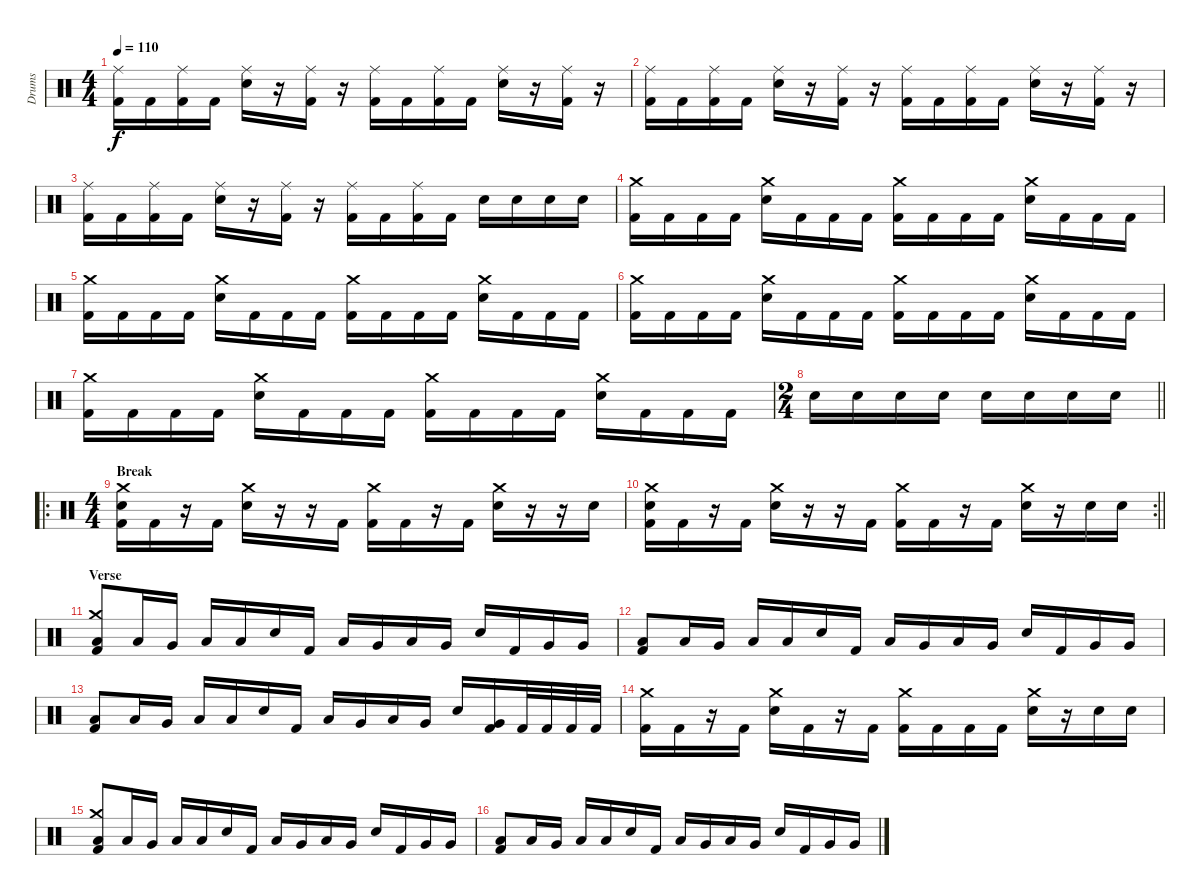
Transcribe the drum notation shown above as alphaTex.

\track ("Drums" "Drums") {instrument percussion}
\staff {score}
\articulation defaults
\ts (4 4)
\tempo 110
\clef neutral
\ks c
("Ride (middle)" "Kick (hit) 2").16{dy f} "Kick (hit) 2".16 ("Ride (middle)" "Kick (hit) 2").16 "Kick (hit) 2".16 ("Ride (middle)" "Electric Snare (hit)").16 r.16 ("Ride (middle)" "Kick (hit) 2").16 r.16 ("Ride (middle)" "Kick (hit) 2").16 "Kick (hit) 2".16 ("Ride (middle)" "Kick (hit) 2").16 "Kick (hit) 2".16 ("Ride (middle)" "Electric Snare (hit)").16 r.16 ("Ride (middle)" "Kick (hit) 2").16 r.16 |
("Ride (middle)" "Kick (hit) 2").16 "Kick (hit) 2".16 ("Ride (middle)" "Kick (hit) 2").16 "Kick (hit) 2".16 ("Ride (middle)" "Electric Snare (hit)").16 r.16 ("Ride (middle)" "Kick (hit) 2").16 r.16 ("Ride (middle)" "Kick (hit) 2").16 "Kick (hit) 2".16 ("Ride (middle)" "Kick (hit) 2").16 "Kick (hit) 2".16 ("Ride (middle)" "Electric Snare (hit)").16 r.16 ("Ride (middle)" "Kick (hit) 2").16 r.16 |
("Ride (middle)" "Kick (hit) 2").16 "Kick (hit) 2".16 ("Ride (middle)" "Kick (hit) 2").16 "Kick (hit) 2".16 ("Ride (middle)" "Electric Snare (hit)").16 r.16 ("Ride (middle)" "Kick (hit) 2").16 r.16 ("Ride (middle)" "Kick (hit) 2").16 "Kick (hit) 2".16 ("Ride (middle)" "Kick (hit) 2").16 "Kick (hit) 2".16 "Electric Snare (hit)".16 "Electric Snare (hit)".16 "Electric Snare (hit)".16 "Electric Snare (hit)".16 |
("Crash medium (hit)" "Kick (hit) 2").16 "Kick (hit) 2".16 "Kick (hit) 2".16 "Kick (hit) 2".16 ("Crash medium (hit)" "Electric Snare (hit)").16 "Kick (hit) 2".16 "Kick (hit) 2".16 "Kick (hit) 2".16 ("Crash medium (hit)" "Kick (hit) 2").16 "Kick (hit) 2".16 "Kick (hit) 2".16 "Kick (hit) 2".16 ("Crash medium (hit)" "Electric Snare (hit)").16 "Kick (hit) 2".16 "Kick (hit) 2".16 "Kick (hit) 2".16 |
("Crash medium (hit)" "Kick (hit) 2").16 "Kick (hit) 2".16 "Kick (hit) 2".16 "Kick (hit) 2".16 ("Crash medium (hit)" "Electric Snare (hit)").16 "Kick (hit) 2".16 "Kick (hit) 2".16 "Kick (hit) 2".16 ("Crash medium (hit)" "Kick (hit) 2").16 "Kick (hit) 2".16 "Kick (hit) 2".16 "Kick (hit) 2".16 ("Crash medium (hit)" "Electric Snare (hit)").16 "Kick (hit) 2".16 "Kick (hit) 2".16 "Kick (hit) 2".16 |
("Crash medium (hit)" "Kick (hit) 2").16 "Kick (hit) 2".16 "Kick (hit) 2".16 "Kick (hit) 2".16 ("Crash medium (hit)" "Electric Snare (hit)").16 "Kick (hit) 2".16 "Kick (hit) 2".16 "Kick (hit) 2".16 ("Crash medium (hit)" "Kick (hit) 2").16 "Kick (hit) 2".16 "Kick (hit) 2".16 "Kick (hit) 2".16 ("Crash medium (hit)" "Electric Snare (hit)").16 "Kick (hit) 2".16 "Kick (hit) 2".16 "Kick (hit) 2".16 |
("Crash medium (hit)" "Kick (hit) 2").16 "Kick (hit) 2".16 "Kick (hit) 2".16 "Kick (hit) 2".16 ("Crash medium (hit)" "Electric Snare (hit)").16 "Kick (hit) 2".16 "Kick (hit) 2".16 "Kick (hit) 2".16 ("Crash medium (hit)" "Kick (hit) 2").16 "Kick (hit) 2".16 "Kick (hit) 2".16 "Kick (hit) 2".16 ("Crash medium (hit)" "Electric Snare (hit)").16 "Kick (hit) 2".16 "Kick (hit) 2".16 "Kick (hit) 2".16 |
\ts (2 4)
\barLineRight lightlight "Electric Snare (hit)".16 "Electric Snare (hit)".16 "Electric Snare (hit)".16 "Electric Snare (hit)".16 "Electric Snare (hit)".16 "Electric Snare (hit)".16 "Electric Snare (hit)".16 "Electric Snare (hit)".16
|
\ro
\ts (4 4)
\section ("" "Break")
("Crash medium (hit)" "Electric Snare (hit)" "Kick (hit) 2").16 "Kick (hit) 2".16 r.16 "Kick (hit) 2".16 ("Crash medium (hit)" "Electric Snare (hit)").16 r.16 r.16 "Kick (hit) 2".16 ("Crash medium (hit)" "Kick (hit) 2").16 "Kick (hit) 2".16 r.16 "Kick (hit) 2".16 ("Crash medium (hit)" "Electric Snare (hit)").16 r.16 r.16 "Electric Snare (hit)".16 |
\rc 2
\barLineRight lightlight
("Crash medium (hit)" "Electric Snare (hit)" "Kick (hit) 2").16 "Kick (hit) 2".16 r.16 "Kick (hit) 2".16 ("Crash medium (hit)" "Electric Snare (hit)").16 r.16 r.16 "Kick (hit) 2".16 ("Crash medium (hit)" "Kick (hit) 2").16 "Kick (hit) 2".16 r.16 "Kick (hit) 2".16 ("Crash medium (hit)" "Electric Snare (hit)").16 r.16 "Electric Snare (hit)".16 "Electric Snare (hit)".16 |
\section ("" "Verse")
("Crash medium (hit)" "Low Tom (hit)" "Kick (hit) 2").8 "Low Tom (hit)".16 "Very Low Tom (hit)".16 "Low Floor Tom (hit)".16 "Low Floor Tom (hit)".16 "Electric Snare (hit)".16 "Kick (hit) 2".16 "Low Floor Tom (hit)".16 "Very Low Tom (hit)".16 "Low Floor Tom (hit)".16 "Very Low Tom (hit)".16 "Electric Snare (hit)".16 "Kick (hit) 2".16 "Very Low Tom (hit)".16 "Very Low Tom (hit)".16 |
("Low Tom (hit)" "Kick (hit) 2").8 "Low Tom (hit)".16 "Very Low Tom (hit)".16 "Low Floor Tom (hit)".16 "Low Floor Tom (hit)".16 "Electric Snare (hit)".16 "Kick (hit) 2".16 "Low Floor Tom (hit)".16 "Very Low Tom (hit)".16 "Low Floor Tom (hit)".16 "Very Low Tom (hit)".16 "Electric Snare (hit)".16 "Kick (hit) 2".16 "Very Low Tom (hit)".16 "Very Low Tom (hit)".16 |
("Low Tom (hit)" "Kick (hit) 2").8 "Low Tom (hit)".16 "Very Low Tom (hit)".16 "Low Floor Tom (hit)".16 "Low Floor Tom (hit)".16 "Electric Snare (hit)".16 "Kick (hit) 2".16 "Low Floor Tom (hit)".16 "Very Low Tom (hit)".16 "Low Floor Tom (hit)".16 "Very Low Tom (hit)".16 "Electric Snare (hit)".16 ("Very Low Tom (hit)" "Kick (hit) 2").16 "Kick (hit) 2".32 "Kick (hit) 2".32 "Kick (hit) 2".32 "Kick (hit) 2".32 |
("Crash medium (hit)" "Kick (hit) 2").16 "Kick (hit) 2".16 r.16 "Kick (hit) 2".16 ("Crash medium (hit)" "Electric Snare (hit)").16 "Kick (hit) 2".16 r.16 "Kick (hit) 2".16 ("Crash medium (hit)" "Kick (hit) 2").16 "Kick (hit) 2".16 "Kick (hit) 2".16 "Kick (hit) 2".16 ("Crash medium (hit)" "Electric Snare (hit)").16 r.16 "Electric Snare (hit)".16 "Electric Snare (hit)".16 |
("Crash medium (hit)" "Low Tom (hit)" "Kick (hit) 2").8 "Low Tom (hit)".16 "Very Low Tom (hit)".16 "Low Floor Tom (hit)".16 "Low Floor Tom (hit)".16 "Electric Snare (hit)".16 "Kick (hit) 2".16 "Low Floor Tom (hit)".16 "Very Low Tom (hit)".16 "Low Floor Tom (hit)".16 "Very Low Tom (hit)".16 "Electric Snare (hit)".16 "Kick (hit) 2".16 "Very Low Tom (hit)".16 "Very Low Tom (hit)".16 |
("Low Tom (hit)" "Kick (hit) 2").8 "Low Tom (hit)".16 "Very Low Tom (hit)".16 "Low Floor Tom (hit)".16 "Low Floor Tom (hit)".16 "Electric Snare (hit)".16 "Kick (hit) 2".16 "Low Floor Tom (hit)".16 "Very Low Tom (hit)".16 "Low Floor Tom (hit)".16 "Very Low Tom (hit)".16 "Electric Snare (hit)".16 "Kick (hit) 2".16 "Very Low Tom (hit)".16 "Very Low Tom (hit)".16
